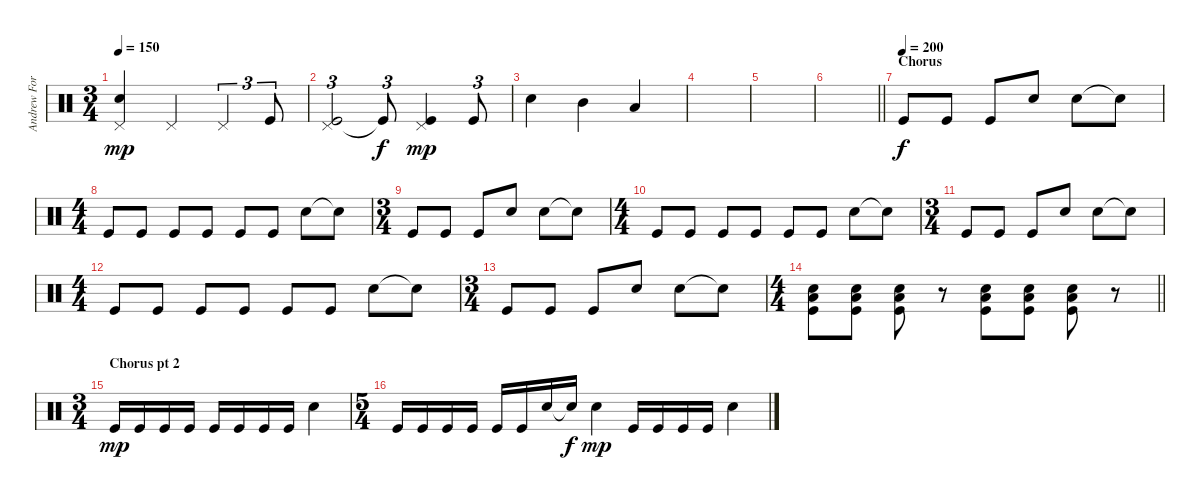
\track ("Andrew Forsman" "Andrew For") {instrument percussion}
\staff {score}
\articulation defaults
\ts (3 4)
\tempo 150
\clef neutral
\ks c
("Pedal Hi-Hat (hit)" "Electric Snare (hit)").4{dy mp} "Pedal Hi-Hat (hit)".4 "Pedal Hi-Hat (hit)".4{tu (3 2)} "Kick (hit)".8{tu (3 2)} |
("Pedal Hi-Hat (hit)" "Kick (hit)").2{tu (3 2)} "Kick (hit)"{t}.8{tu (3 2) dy f} ("Pedal Hi-Hat (hit)" "Kick (hit)").4{dy mp} "Kick (hit)".8{tu (3 2)} |
"Electric Snare (hit)".4 "Mid Tom (hit)".4 "Low Tom (hit)".4 |
|
|
\barLineRight lightlight
|
\section ("" "Chorus")
\tempo (200)
"Kick (hit)".8{dy f} "Kick (hit)".8 "Kick (hit)".8 "Electric Snare (hit)".8 "Electric Snare (hit)".8 "Snare (hit)"{t}.8 |
\ts (4 4)
"Kick (hit)".8 "Kick (hit)".8 "Kick (hit)".8 "Kick (hit)".8 "Kick (hit)".8 "Kick (hit)".8 "Electric Snare (hit)".8 "Snare (hit)"{t}.8 |
\ts (3 4)
"Kick (hit)".8 "Kick (hit)".8 "Kick (hit)".8 "Electric Snare (hit)".8 "Electric Snare (hit)".8 "Snare (hit)"{t}.8 |
\ts (4 4)
"Kick (hit)".8 "Kick (hit)".8 "Kick (hit)".8 "Kick (hit)".8 "Kick (hit)".8 "Kick (hit)".8 "Electric Snare (hit)".8 "Snare (hit)"{t}.8 |
\ts (3 4)
"Kick (hit)".8 "Kick (hit)".8 "Kick (hit)".8 "Electric Snare (hit)".8 "Electric Snare (hit)".8 "Snare (hit)"{t}.8 |
\ts (4 4)
"Kick (hit)".8 "Kick (hit)".8 "Kick (hit)".8 "Kick (hit)".8 "Kick (hit)".8 "Kick (hit)".8 "Electric Snare (hit)".8 "Snare (hit)"{t}.8 |
\ts (3 4)
"Kick (hit)".8 "Kick (hit)".8 "Kick (hit)".8 "Electric Snare (hit)".8 "Electric Snare (hit)".8 "Snare (hit)"{t}.8 |
\ts (4 4)
\barLineRight lightlight
("Low Floor Tom (hit)" "Electric Snare (hit)" "Kick (hit)").8 ("Low Floor Tom (hit)" "Electric Snare (hit)" "Kick (hit)").8 ("Low Floor Tom (hit)" "Electric Snare (hit)" "Kick (hit)").8 r.8 ("Low Floor Tom (hit)" "Electric Snare (hit)" "Kick (hit)").8 ("Low Floor Tom (hit)" "Electric Snare (hit)" "Kick (hit)").8 ("Low Floor Tom (hit)" "Electric Snare (hit)" "Kick (hit)").8 r.8 |
\ts (3 4)
\section ("" "Chorus pt 2")
"Kick (hit)".16{dy mp} "Kick (hit)".16 "Kick (hit)".16 "Kick (hit)".16 "Kick (hit)".16 "Kick (hit)".16 "Kick (hit)".16 "Kick (hit)".16 "Electric Snare (hit)".4 |
\ts (5 4)
"Kick (hit)".16 "Kick (hit)".16 "Kick (hit)".16 "Kick (hit)".16 "Kick (hit)".16 "Kick (hit)".16 "Electric Snare (hit)".16 "Snare (hit)"{t}.16{dy f} "Electric Snare (hit)".4{dy mp} "Kick (hit)".16 "Kick (hit)".16 "Kick (hit)".16 "Kick (hit)".16 "Electric Snare (hit)".4
